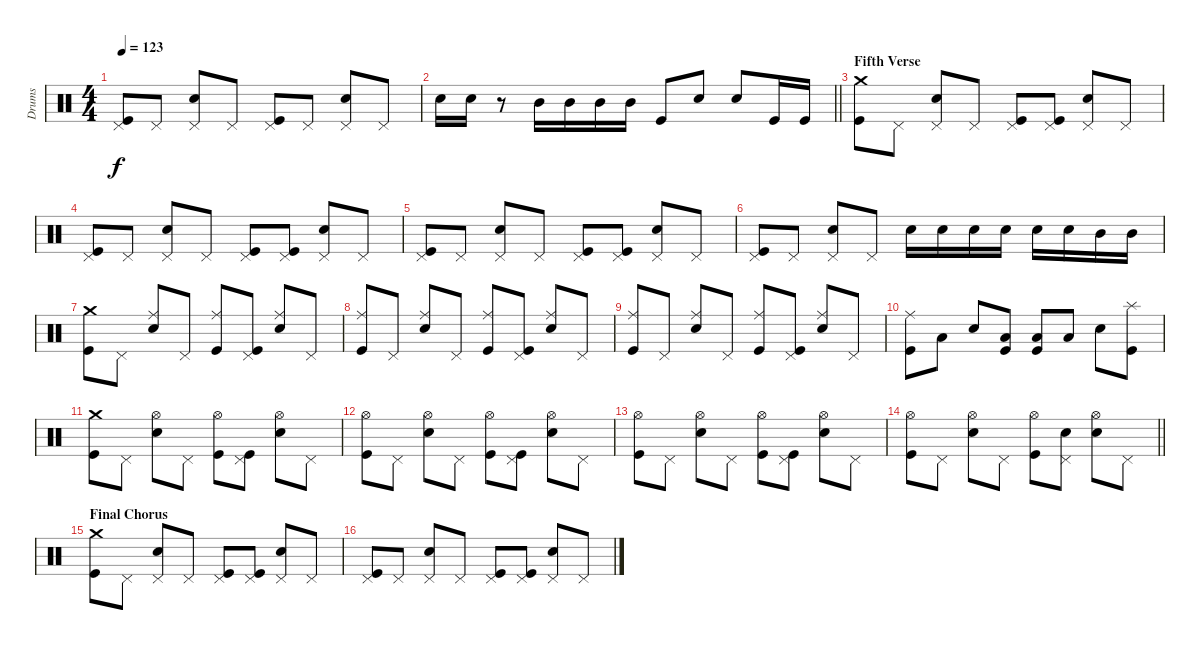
\track ("Drums" "Drums") {instrument percussion}
\staff {score}
\articulation defaults
\ts (4 4)
\tempo 123
\clef neutral
\ks c
("Pedal Hi-Hat (hit)" "Kick (hit)").8{dy f} "Pedal Hi-Hat (hit)".8 ("Pedal Hi-Hat (hit)" "Electric Snare (hit)").8 "Pedal Hi-Hat (hit)".8 ("Pedal Hi-Hat (hit)" "Kick (hit)").8 "Pedal Hi-Hat (hit)".8 ("Pedal Hi-Hat (hit)" "Electric Snare (hit)").8 "Pedal Hi-Hat (hit)".8 |
\barLineRight lightlight "Electric Snare (hit)".16 "Electric Snare (hit)".16
r.8 "Mid Tom (hit)".16 "Mid Tom (hit)".16 "Mid Tom (hit)".16 "Mid Tom (hit)".16 "Kick (hit)".8 "Electric Snare (hit)".8 "Electric Snare (hit)".8 "Kick (hit)".16 "Kick (hit)".16 |
\section ("" "Fifth Verse")
("Crash medium (hit)" "Kick (hit)").8 "Pedal Hi-Hat (hit)".8 ("Pedal Hi-Hat (hit)" "Electric Snare (hit)").8 "Pedal Hi-Hat (hit)".8 ("Pedal Hi-Hat (hit)" "Kick (hit)").8 ("Pedal Hi-Hat (hit)" "Kick (hit)").8 ("Pedal Hi-Hat (hit)" "Electric Snare (hit)").8 "Pedal Hi-Hat (hit)".8 |
("Pedal Hi-Hat (hit)" "Kick (hit)").8 "Pedal Hi-Hat (hit)".8 ("Pedal Hi-Hat (hit)" "Electric Snare (hit)").8 "Pedal Hi-Hat (hit)".8 ("Pedal Hi-Hat (hit)" "Kick (hit)").8 ("Pedal Hi-Hat (hit)" "Kick (hit)").8 ("Pedal Hi-Hat (hit)" "Electric Snare (hit)").8 "Pedal Hi-Hat (hit)".8 |
("Pedal Hi-Hat (hit)" "Kick (hit)").8 "Pedal Hi-Hat (hit)".8 ("Pedal Hi-Hat (hit)" "Electric Snare (hit)").8 "Pedal Hi-Hat (hit)".8 ("Pedal Hi-Hat (hit)" "Kick (hit)").8 ("Pedal Hi-Hat (hit)" "Kick (hit)").8 ("Pedal Hi-Hat (hit)" "Electric Snare (hit)").8 "Pedal Hi-Hat (hit)".8 |
("Pedal Hi-Hat (hit)" "Kick (hit)").8 "Pedal Hi-Hat (hit)".8 ("Pedal Hi-Hat (hit)" "Electric Snare (hit)").8 "Pedal Hi-Hat (hit)".8 "Electric Snare (hit)".16 "Electric Snare (hit)".16 "Electric Snare (hit)".16 "Electric Snare (hit)".16 "Electric Snare (hit)".16 "Electric Snare (hit)".16 "Mid Tom (hit)".16 "Mid Tom (hit)".16 |
("Crash medium (hit)" "Kick (hit)").8 "Pedal Hi-Hat (hit)".8 ("Ride (middle)" "Electric Snare (hit)").8 "Pedal Hi-Hat (hit)".8 ("Ride (middle)" "Kick (hit)").8 ("Pedal Hi-Hat (hit)" "Kick (hit)").8 ("Ride (middle)" "Electric Snare (hit)").8 "Pedal Hi-Hat (hit)".8 |
("Ride (middle)" "Kick (hit)").8 "Pedal Hi-Hat (hit)".8 ("Ride (middle)" "Electric Snare (hit)").8 "Pedal Hi-Hat (hit)".8 ("Ride (middle)" "Kick (hit)").8 ("Pedal Hi-Hat (hit)" "Kick (hit)").8 ("Ride (middle)" "Electric Snare (hit)").8 "Pedal Hi-Hat (hit)".8 |
("Ride (middle)" "Kick (hit)").8 "Pedal Hi-Hat (hit)".8 ("Ride (middle)" "Electric Snare (hit)").8 "Pedal Hi-Hat (hit)".8 ("Ride (middle)" "Kick (hit)").8 ("Pedal Hi-Hat (hit)" "Kick (hit)").8 ("Ride (middle)" "Electric Snare (hit)").8 "Pedal Hi-Hat (hit)".8 |
("Ride (middle)" "Kick (hit)").8 "Low Tom (hit)".8 "Electric Snare (hit)".8 ("Low Tom (hit)" "Kick (hit)").8 ("Low Tom (hit)" "Kick (hit)").8 "Low Tom (hit)".8 "Electric Snare (hit)".8 ("Splash (hit)" "Kick (hit)").8 |
("Crash medium (hit)" "Kick (hit)").8 "Pedal Hi-Hat (hit)".8 ("Hi-Hat (open)" "Electric Snare (hit)").8 "Pedal Hi-Hat (hit)".8 ("Hi-Hat (open)" "Kick (hit)").8 ("Pedal Hi-Hat (hit)" "Kick (hit)").8 ("Hi-Hat (open)" "Electric Snare (hit)").8 "Pedal Hi-Hat (hit)".8 |
("Hi-Hat (open)" "Kick (hit)").8 "Pedal Hi-Hat (hit)".8 ("Hi-Hat (open)" "Electric Snare (hit)").8 "Pedal Hi-Hat (hit)".8 ("Hi-Hat (open)" "Kick (hit)").8 ("Pedal Hi-Hat (hit)" "Kick (hit)").8 ("Hi-Hat (open)" "Electric Snare (hit)").8 "Pedal Hi-Hat (hit)".8 |
("Hi-Hat (open)" "Kick (hit)").8 "Pedal Hi-Hat (hit)".8 ("Hi-Hat (open)" "Electric Snare (hit)").8 "Pedal Hi-Hat (hit)".8 ("Hi-Hat (open)" "Kick (hit)").8 ("Pedal Hi-Hat (hit)" "Kick (hit)").8 ("Hi-Hat (open)" "Electric Snare (hit)").8 "Pedal Hi-Hat (hit)".8 |
\barLineRight lightlight
("Hi-Hat (open)" "Kick (hit)").8 "Pedal Hi-Hat (hit)".8 ("Hi-Hat (open)" "Electric Snare (hit)").8 "Pedal Hi-Hat (hit)".8 ("Hi-Hat (open)" "Kick (hit)").8 ("Pedal Hi-Hat (hit)" "Electric Snare (hit)").8 ("Hi-Hat (open)" "Electric Snare (hit)").8 "Pedal Hi-Hat (hit)".8 |
\section ("" "Final Chorus")
("Crash medium (hit)" "Kick (hit)").8 "Pedal Hi-Hat (hit)".8 ("Pedal Hi-Hat (hit)" "Electric Snare (hit)").8 "Pedal Hi-Hat (hit)".8 ("Pedal Hi-Hat (hit)" "Kick (hit)").8 ("Pedal Hi-Hat (hit)" "Kick (hit)").8 ("Pedal Hi-Hat (hit)" "Electric Snare (hit)").8 "Pedal Hi-Hat (hit)".8 |
("Pedal Hi-Hat (hit)" "Kick (hit)").8 "Pedal Hi-Hat (hit)".8 ("Pedal Hi-Hat (hit)" "Electric Snare (hit)").8 "Pedal Hi-Hat (hit)".8 ("Pedal Hi-Hat (hit)" "Kick (hit)").8 ("Pedal Hi-Hat (hit)" "Kick (hit)").8 ("Pedal Hi-Hat (hit)" "Electric Snare (hit)").8 "Pedal Hi-Hat (hit)".8
